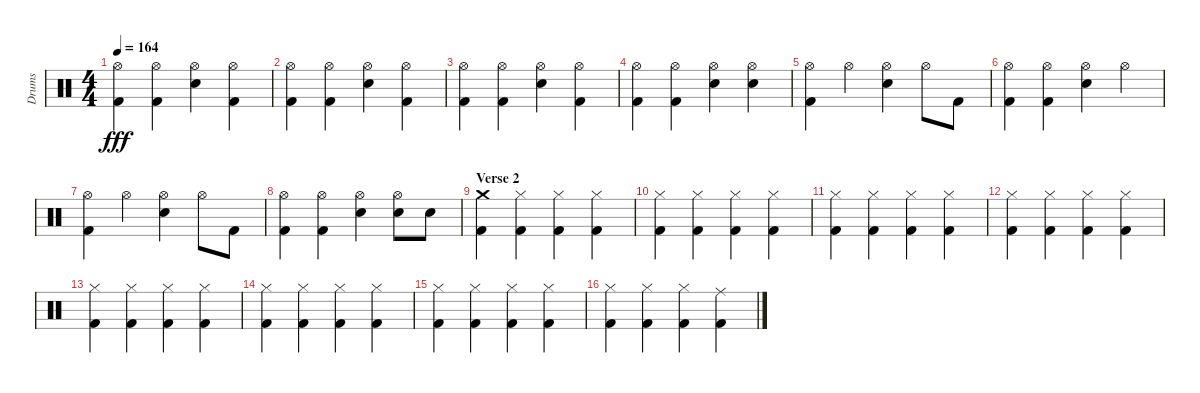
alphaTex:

\track ("Drums" "Drums") {instrument percussion}
\staff {score}
\articulation defaults
\ts (4 4)
\tempo 164
\clef neutral
\ks c
("Hi-Hat (open)" "Kick (hit) 2").4{dy fff} ("Hi-Hat (open)" "Kick (hit) 2").4 ("Hi-Hat (open)" "Electric Snare (hit)").4 ("Hi-Hat (open)" "Kick (hit) 2").4 |
("Hi-Hat (open)" "Kick (hit) 2").4 ("Hi-Hat (open)" "Kick (hit) 2").4 ("Hi-Hat (open)" "Electric Snare (hit)").4 ("Hi-Hat (open)" "Kick (hit) 2").4 |
("Hi-Hat (open)" "Kick (hit) 2").4 ("Hi-Hat (open)" "Kick (hit) 2").4 ("Hi-Hat (open)" "Electric Snare (hit)").4 ("Hi-Hat (open)" "Kick (hit) 2").4 |
("Hi-Hat (open)" "Kick (hit) 2").4 ("Hi-Hat (open)" "Kick (hit) 2").4 ("Hi-Hat (open)" "Electric Snare (hit)").4 ("Hi-Hat (open)" "Electric Snare (hit)").4 |
("Hi-Hat (open)" "Kick (hit) 2").4 "Hi-Hat (open)".4 ("Hi-Hat (open)" "Electric Snare (hit)").4 "Hi-Hat (open)".8 "Kick (hit) 2".8 |
("Hi-Hat (open)" "Kick (hit) 2").4 ("Hi-Hat (open)" "Kick (hit) 2").4 ("Hi-Hat (open)" "Electric Snare (hit)").4 "Hi-Hat (open)".4 |
("Hi-Hat (open)" "Kick (hit) 2").4 "Hi-Hat (open)".4 ("Hi-Hat (open)" "Electric Snare (hit)").4 "Hi-Hat (open)".8 "Kick (hit) 2".8 |
("Hi-Hat (open)" "Kick (hit) 2").4 ("Hi-Hat (open)" "Kick (hit) 2").4 ("Hi-Hat (open)" "Electric Snare (hit)").4 ("Hi-Hat (open)" "Electric Snare (hit)").8 "Electric Snare (hit)".8 |
\section ("" "Verse 2")
("Crash medium (hit)" "Kick (hit) 2").4 ("Hi-Hat (closed)" "Kick (hit) 2").4 ("Hi-Hat (closed)" "Kick (hit) 2").4 ("Hi-Hat (closed)" "Kick (hit) 2").4 |
("Hi-Hat (closed)" "Kick (hit) 2").4 ("Hi-Hat (closed)" "Kick (hit) 2").4 ("Hi-Hat (closed)" "Kick (hit) 2").4 ("Hi-Hat (closed)" "Kick (hit) 2").4 |
("Hi-Hat (closed)" "Kick (hit) 2").4 ("Hi-Hat (closed)" "Kick (hit) 2").4 ("Hi-Hat (closed)" "Kick (hit) 2").4 ("Hi-Hat (closed)" "Kick (hit) 2").4 |
("Hi-Hat (closed)" "Kick (hit) 2").4 ("Hi-Hat (closed)" "Kick (hit) 2").4 ("Hi-Hat (closed)" "Kick (hit) 2").4 ("Hi-Hat (closed)" "Kick (hit) 2").4 |
("Hi-Hat (closed)" "Kick (hit) 2").4 ("Hi-Hat (closed)" "Kick (hit) 2").4 ("Hi-Hat (closed)" "Kick (hit) 2").4 ("Hi-Hat (closed)" "Kick (hit) 2").4 |
("Hi-Hat (closed)" "Kick (hit) 2").4 ("Hi-Hat (closed)" "Kick (hit) 2").4 ("Hi-Hat (closed)" "Kick (hit) 2").4 ("Hi-Hat (closed)" "Kick (hit) 2").4 |
("Hi-Hat (closed)" "Kick (hit) 2").4 ("Hi-Hat (closed)" "Kick (hit) 2").4 ("Hi-Hat (closed)" "Kick (hit) 2").4 ("Hi-Hat (closed)" "Kick (hit) 2").4 |
("Hi-Hat (closed)" "Kick (hit) 2").4 ("Hi-Hat (closed)" "Kick (hit) 2").4 ("Hi-Hat (closed)" "Kick (hit) 2").4 ("Ride (middle)" "Kick (hit) 2").4
